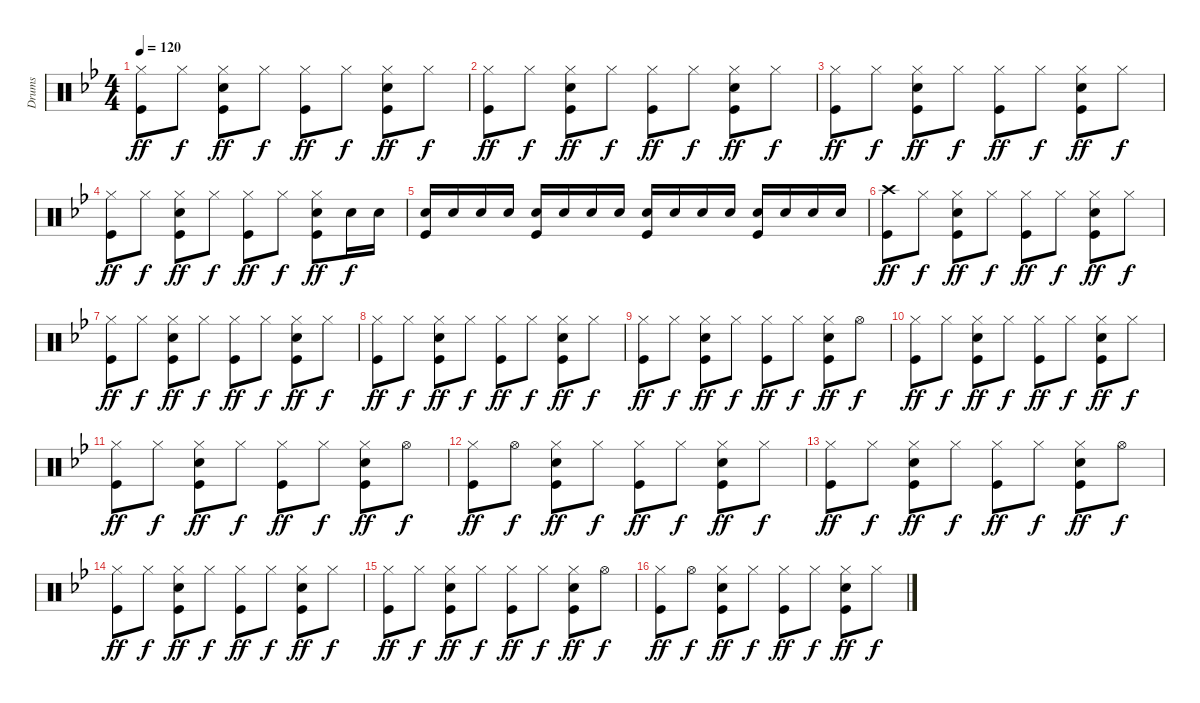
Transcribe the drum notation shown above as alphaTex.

\track ("Drums" "Drums") {instrument percussion}
\staff {score}
\articulation defaults
\ts (4 4)
\tempo 120
\clef neutral
\ks bb
("Hi-Hat (closed)" "Kick (hit)").8{dy ff} "Hi-Hat (closed)".8{dy f} ("Hi-Hat (closed)" "Snare (hit) 2" "Kick (hit)").8{dy ff} "Hi-Hat (closed)".8{dy f} ("Hi-Hat (closed)" "Kick (hit)").8{dy ff} "Hi-Hat (closed)".8{dy f} ("Hi-Hat (closed)" "Snare (hit) 2" "Kick (hit)").8{dy ff} "Hi-Hat (closed)".8{dy f} |
("Hi-Hat (closed)" "Kick (hit)").8{dy ff} "Hi-Hat (closed)".8{dy f} ("Hi-Hat (closed)" "Snare (hit) 2" "Kick (hit)").8{dy ff} "Hi-Hat (closed)".8{dy f} ("Hi-Hat (closed)" "Kick (hit)").8{dy ff} "Hi-Hat (closed)".8{dy f} ("Hi-Hat (closed)" "Snare (hit) 2" "Kick (hit)").8{dy ff} "Hi-Hat (closed)".8{dy f} |
("Hi-Hat (closed)" "Kick (hit)").8{dy ff} "Hi-Hat (closed)".8{dy f} ("Hi-Hat (closed)" "Snare (hit) 2" "Kick (hit)").8{dy ff} "Hi-Hat (closed)".8{dy f} ("Hi-Hat (closed)" "Kick (hit)").8{dy ff} "Hi-Hat (closed)".8{dy f} ("Hi-Hat (closed)" "Snare (hit) 2" "Kick (hit)").8{dy ff} "Hi-Hat (closed)".8{dy f} |
("Hi-Hat (closed)" "Kick (hit)").8{dy ff} "Hi-Hat (closed)".8{dy f} ("Hi-Hat (closed)" "Snare (hit) 2" "Kick (hit)").8{dy ff} "Hi-Hat (closed)".8{dy f} ("Hi-Hat (closed)" "Kick (hit)").8{dy ff} "Hi-Hat (closed)".8{dy f} ("Hi-Hat (closed)" "Snare (hit) 2" "Kick (hit)").8{dy ff} "Snare (hit) 2".16{dy f} "Snare (hit) 2".16 |
("Snare (hit) 2" "Kick (hit)").16 "Snare (hit) 2".16 "Snare (hit) 2".16 "Snare (hit) 2".16 ("Snare (hit) 2" "Kick (hit)").16 "Snare (hit) 2".16 "Snare (hit) 2".16 "Snare (hit) 2".16 ("Snare (hit) 2" "Kick (hit)").16 "Snare (hit) 2".16 "Snare (hit) 2".16 "Snare (hit) 2".16 ("Snare (hit) 2" "Kick (hit)").16 "Snare (hit) 2".16 "Snare (hit) 2".16 "Snare (hit) 2".16 |
("Crash high (hit)" "Kick (hit)").8{dy ff} "Hi-Hat (closed)".8{dy f} ("Hi-Hat (closed)" "Snare (hit) 2" "Kick (hit)").8{dy ff} "Hi-Hat (closed)".8{dy f} ("Hi-Hat (closed)" "Kick (hit)").8{dy ff} "Hi-Hat (closed)".8{dy f} ("Hi-Hat (closed)" "Snare (hit) 2" "Kick (hit)").8{dy ff} "Hi-Hat (closed)".8{dy f} |
("Hi-Hat (closed)" "Kick (hit)").8{dy ff} "Hi-Hat (closed)".8{dy f} ("Hi-Hat (closed)" "Snare (hit) 2" "Kick (hit)").8{dy ff} "Hi-Hat (closed)".8{dy f} ("Hi-Hat (closed)" "Kick (hit)").8{dy ff} "Hi-Hat (closed)".8{dy f} ("Hi-Hat (closed)" "Snare (hit) 2" "Kick (hit)").8{dy ff} "Hi-Hat (closed)".8{dy f} |
("Hi-Hat (closed)" "Kick (hit)").8{dy ff} "Hi-Hat (closed)".8{dy f} ("Hi-Hat (closed)" "Snare (hit) 2" "Kick (hit)").8{dy ff} "Hi-Hat (closed)".8{dy f} ("Hi-Hat (closed)" "Kick (hit)").8{dy ff} "Hi-Hat (closed)".8{dy f} ("Hi-Hat (closed)" "Snare (hit) 2" "Kick (hit)").8{dy ff} "Hi-Hat (closed)".8{dy f} |
("Hi-Hat (closed)" "Kick (hit)").8{dy ff} "Hi-Hat (closed)".8{dy f} ("Hi-Hat (closed)" "Snare (hit) 2" "Kick (hit)").8{dy ff} "Hi-Hat (closed)".8{dy f} ("Hi-Hat (closed)" "Kick (hit)").8{dy ff} "Hi-Hat (closed)".8{dy f} ("Hi-Hat (closed)" "Snare (hit) 2" "Kick (hit)").8{dy ff} "Hi-Hat (open)".8{dy f} |
("Hi-Hat (closed)" "Kick (hit)").8{dy ff} "Hi-Hat (closed)".8{dy f} ("Hi-Hat (closed)" "Snare (hit) 2" "Kick (hit)").8{dy ff} "Hi-Hat (closed)".8{dy f} ("Hi-Hat (closed)" "Kick (hit)").8{dy ff} "Hi-Hat (closed)".8{dy f} ("Hi-Hat (closed)" "Snare (hit) 2" "Kick (hit)").8{dy ff} "Hi-Hat (closed)".8{dy f} |
("Hi-Hat (closed)" "Kick (hit)").8{dy ff} "Hi-Hat (closed)".8{dy f} ("Hi-Hat (closed)" "Snare (hit) 2" "Kick (hit)").8{dy ff} "Hi-Hat (closed)".8{dy f} ("Hi-Hat (closed)" "Kick (hit)").8{dy ff} "Hi-Hat (closed)".8{dy f} ("Hi-Hat (closed)" "Snare (hit) 2" "Kick (hit)").8{dy ff} "Hi-Hat (open)".8{dy f} |
("Hi-Hat (closed)" "Kick (hit)").8{dy ff} "Hi-Hat (open)".8{dy f} ("Hi-Hat (closed)" "Snare (hit) 2" "Kick (hit)").8{dy ff} "Hi-Hat (closed)".8{dy f} ("Hi-Hat (closed)" "Kick (hit)").8{dy ff} "Hi-Hat (closed)".8{dy f} ("Hi-Hat (closed)" "Snare (hit) 2" "Kick (hit)").8{dy ff} "Hi-Hat (closed)".8{dy f} |
("Hi-Hat (closed)" "Kick (hit)").8{dy ff} "Hi-Hat (closed)".8{dy f} ("Hi-Hat (closed)" "Snare (hit) 2" "Kick (hit)").8{dy ff} "Hi-Hat (closed)".8{dy f} ("Hi-Hat (closed)" "Kick (hit)").8{dy ff} "Hi-Hat (closed)".8{dy f} ("Hi-Hat (closed)" "Snare (hit) 2" "Kick (hit)").8{dy ff} "Hi-Hat (open)".8{dy f} |
("Hi-Hat (closed)" "Kick (hit)").8{dy ff} "Hi-Hat (closed)".8{dy f} ("Hi-Hat (closed)" "Snare (hit) 2" "Kick (hit)").8{dy ff} "Hi-Hat (closed)".8{dy f} ("Hi-Hat (closed)" "Kick (hit)").8{dy ff} "Hi-Hat (closed)".8{dy f} ("Hi-Hat (closed)" "Snare (hit) 2" "Kick (hit)").8{dy ff} "Hi-Hat (closed)".8{dy f} |
("Hi-Hat (closed)" "Kick (hit)").8{dy ff} "Hi-Hat (closed)".8{dy f} ("Hi-Hat (closed)" "Snare (hit) 2" "Kick (hit)").8{dy ff} "Hi-Hat (closed)".8{dy f} ("Hi-Hat (closed)" "Kick (hit)").8{dy ff} "Hi-Hat (closed)".8{dy f} ("Hi-Hat (closed)" "Snare (hit) 2" "Kick (hit)").8{dy ff} "Hi-Hat (open)".8{dy f} |
("Hi-Hat (closed)" "Kick (hit)").8{dy ff} "Hi-Hat (open)".8{dy f} ("Hi-Hat (closed)" "Snare (hit) 2" "Kick (hit)").8{dy ff} "Hi-Hat (closed)".8{dy f} ("Hi-Hat (closed)" "Kick (hit)").8{dy ff} "Hi-Hat (closed)".8{dy f} ("Hi-Hat (closed)" "Snare (hit) 2" "Kick (hit)").8{dy ff} "Hi-Hat (closed)".8{dy f}
